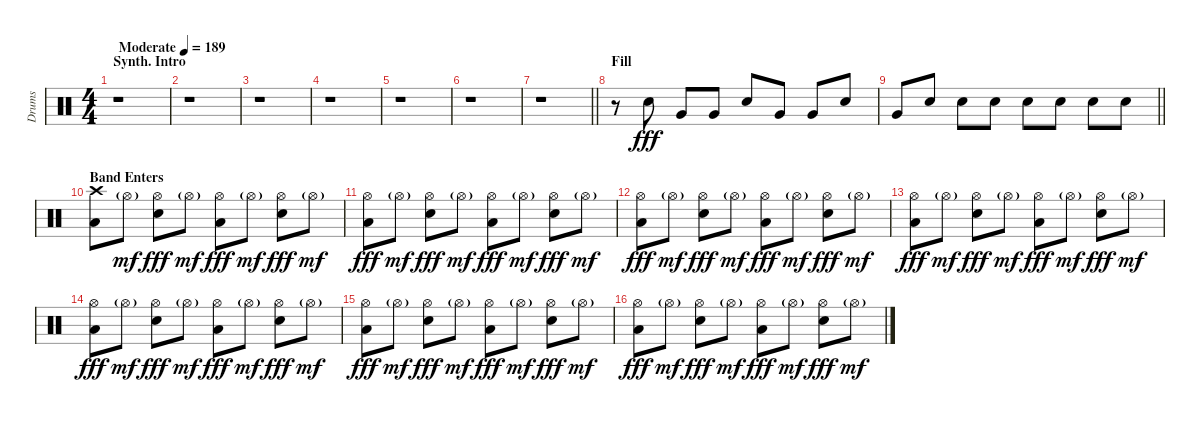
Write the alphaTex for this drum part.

\track ("Drums" "Drums") {instrument percussion}
\staff {score}
\articulation defaults
\ts (4 4)
\section ("" "Synth. Intro")
\tempo (189 "Moderate")
\clef neutral
\ks c
r.1{dy fff} |
r.1 |
r.1 |
r.1 |
r.1 |
r.1 |
\barLineRight lightlight
r.1 |
\section ("" "Fill")
r.8 "Snare (hit) 2".8 "Very Low Tom (hit)".8 "Very Low Tom (hit)".8 "Snare (hit) 2".8 "Very Low Tom (hit)".8 "Very Low Tom (hit)".8 "Snare (hit) 2".8 |
\barLineRight lightlight "Very Low Tom (hit)".8 "Snare (hit) 2".8 "Snare (hit) 2".8 "Snare (hit) 2".8 "Snare (hit) 2".8 "Snare (hit) 2".8 "Snare (hit) 2".8 "Snare (hit) 2".8
|
\section ("" "Band Enters")
("Crash high (hit)" "Low Floor Tom (hit)").8 "Hi-Hat (open)"{g}.8{dy mf} ("Hi-Hat (open)" "Snare (hit) 2").8{dy fff} "Hi-Hat (open)"{g}.8{dy mf} ("Hi-Hat (open)" "Low Floor Tom (hit)").8{dy fff} "Hi-Hat (open)"{g}.8{dy mf} ("Hi-Hat (open)" "Snare (hit) 2").8{dy fff} "Hi-Hat (open)"{g}.8{dy mf} |
("Hi-Hat (open)" "Low Floor Tom (hit)").8{dy fff} "Hi-Hat (open)"{g}.8{dy mf} ("Hi-Hat (open)" "Snare (hit) 2").8{dy fff} "Hi-Hat (open)"{g}.8{dy mf} ("Hi-Hat (open)" "Low Floor Tom (hit)").8{dy fff} "Hi-Hat (open)"{g}.8{dy mf} ("Hi-Hat (open)" "Snare (hit) 2").8{dy fff} "Hi-Hat (open)"{g}.8{dy mf} |
("Hi-Hat (open)" "Low Floor Tom (hit)").8{dy fff} "Hi-Hat (open)"{g}.8{dy mf} ("Hi-Hat (open)" "Snare (hit) 2").8{dy fff} "Hi-Hat (open)"{g}.8{dy mf} ("Hi-Hat (open)" "Low Floor Tom (hit)").8{dy fff} "Hi-Hat (open)"{g}.8{dy mf} ("Hi-Hat (open)" "Snare (hit) 2").8{dy fff} "Hi-Hat (open)"{g}.8{dy mf} |
("Hi-Hat (open)" "Low Floor Tom (hit)").8{dy fff} "Hi-Hat (open)"{g}.8{dy mf} ("Hi-Hat (open)" "Snare (hit) 2").8{dy fff} "Hi-Hat (open)"{g}.8{dy mf} ("Hi-Hat (open)" "Low Floor Tom (hit)").8{dy fff} "Hi-Hat (open)"{g}.8{dy mf} ("Hi-Hat (open)" "Snare (hit) 2").8{dy fff} "Hi-Hat (open)"{g}.8{dy mf} |
("Hi-Hat (open)" "Low Floor Tom (hit)").8{dy fff} "Hi-Hat (open)"{g}.8{dy mf} ("Hi-Hat (open)" "Snare (hit) 2").8{dy fff} "Hi-Hat (open)"{g}.8{dy mf} ("Hi-Hat (open)" "Low Floor Tom (hit)").8{dy fff} "Hi-Hat (open)"{g}.8{dy mf} ("Hi-Hat (open)" "Snare (hit) 2").8{dy fff} "Hi-Hat (open)"{g}.8{dy mf} |
("Hi-Hat (open)" "Low Floor Tom (hit)").8{dy fff} "Hi-Hat (open)"{g}.8{dy mf} ("Hi-Hat (open)" "Snare (hit) 2").8{dy fff} "Hi-Hat (open)"{g}.8{dy mf} ("Hi-Hat (open)" "Low Floor Tom (hit)").8{dy fff} "Hi-Hat (open)"{g}.8{dy mf} ("Hi-Hat (open)" "Snare (hit) 2").8{dy fff} "Hi-Hat (open)"{g}.8{dy mf} |
("Hi-Hat (open)" "Low Floor Tom (hit)").8{dy fff} "Hi-Hat (open)"{g}.8{dy mf} ("Hi-Hat (open)" "Snare (hit) 2").8{dy fff} "Hi-Hat (open)"{g}.8{dy mf} ("Hi-Hat (open)" "Low Floor Tom (hit)").8{dy fff} "Hi-Hat (open)"{g}.8{dy mf} ("Hi-Hat (open)" "Snare (hit) 2").8{dy fff} "Hi-Hat (open)"{g}.8{dy mf}
